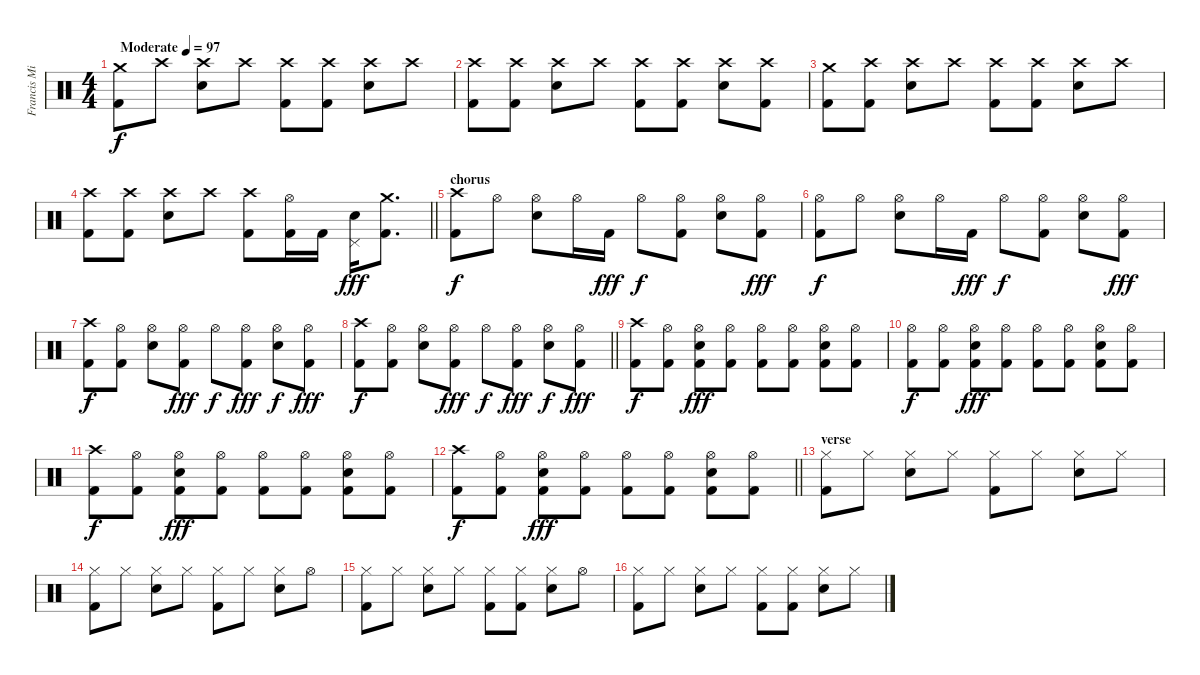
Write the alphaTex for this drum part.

\track ("Francis Mineau" "Francis Mi") {instrument percussion}
\staff {score}
\articulation defaults
\ts (4 4)
\tempo (97 "Moderate")
\clef neutral
\ks c
("Crash medium (hit)" "Kick (hit) 2").8{dy f} "Crash high (hit)".8 ("Crash high (hit)" "Snare (hit) 2").8 "Crash high (hit)".8 ("Crash high (hit)" "Kick (hit) 2").8 ("Crash high (hit)" "Kick (hit) 2").8 ("Crash high (hit)" "Snare (hit) 2").8 "Crash high (hit)".8 |
("Crash high (hit)" "Kick (hit) 2").8 ("Crash high (hit)" "Kick (hit) 2").8 ("Crash high (hit)" "Snare (hit) 2").8 "Crash high (hit)".8 ("Crash high (hit)" "Kick (hit) 2").8 ("Crash high (hit)" "Kick (hit) 2").8 ("Crash high (hit)" "Snare (hit) 2").8 ("Crash high (hit)" "Kick (hit) 2").8 |
("Crash medium (hit)" "Kick (hit) 2").8 ("Crash high (hit)" "Kick (hit) 2").8 ("Crash high (hit)" "Snare (hit) 2").8 "Crash high (hit)".8 ("Crash high (hit)" "Kick (hit) 2").8 ("Crash high (hit)" "Kick (hit) 2").8 ("Crash high (hit)" "Snare (hit) 2").8 "Crash high (hit)".8 |
\barLineRight lightlight
("Crash high (hit)" "Kick (hit) 2").8 ("Crash high (hit)" "Kick (hit) 2").8 ("Crash high (hit)" "Snare (hit) 2").8 "Crash high (hit)".8 ("Crash high (hit)" "Kick (hit) 2").8 ("Hi-Hat (open)" "Kick (hit) 2").16 "Kick (hit) 2".16 ("Snare (hit) 2" "Pedal Hi-Hat (hit)").16{dy fff} ("Crash medium (hit)" "Kick (hit) 2").8{d} |
\section ("" "chorus")
("Crash high (hit)" "Kick (hit) 2").8{dy f} "Hi-Hat (open)".8 ("Hi-Hat (open)" "Snare (hit) 2").8 "Hi-Hat (open)".16 "Kick (hit) 2".16{dy fff} "Hi-Hat (open)".8{dy f} ("Hi-Hat (open)" "Kick (hit) 2").8 ("Hi-Hat (open)" "Snare (hit) 2").8 ("Hi-Hat (open)" "Kick (hit) 2").8{dy fff} |
("Hi-Hat (open)" "Kick (hit) 2").8{dy f} "Hi-Hat (open)".8 ("Hi-Hat (open)" "Snare (hit) 2").8 "Hi-Hat (open)".16 "Kick (hit) 2".16{dy fff} "Hi-Hat (open)".8{dy f} ("Hi-Hat (open)" "Kick (hit) 2").8 ("Hi-Hat (open)" "Snare (hit) 2").8 ("Hi-Hat (open)" "Kick (hit) 2").8{dy fff} |
("Crash high (hit)" "Kick (hit) 2").8{dy f} ("Hi-Hat (open)" "Kick (hit) 2").8 ("Hi-Hat (open)" "Snare (hit) 2").8 ("Hi-Hat (open)" "Kick (hit) 2").8{dy fff} "Hi-Hat (open)".8{dy f} ("Hi-Hat (open)" "Kick (hit) 2").8{dy fff} ("Hi-Hat (open)" "Snare (hit) 2").8{dy f} ("Hi-Hat (open)" "Kick (hit) 2").8{dy fff} |
\barLineRight lightlight
("Crash high (hit)" "Kick (hit) 2").8{dy f} ("Hi-Hat (open)" "Kick (hit) 2").8 ("Hi-Hat (open)" "Snare (hit) 2").8 ("Hi-Hat (open)" "Kick (hit) 2").8{dy fff} "Hi-Hat (open)".8{dy f} ("Hi-Hat (open)" "Kick (hit) 2").8{dy fff} ("Hi-Hat (open)" "Snare (hit) 2").8{dy f} ("Hi-Hat (open)" "Kick (hit) 2").8{dy fff} |
("Crash high (hit)" "Kick (hit) 2").8{dy f} ("Hi-Hat (open)" "Kick (hit) 2").8 ("Hi-Hat (open)" "Snare (hit) 2" "Kick (hit) 2").8{dy fff} ("Hi-Hat (open)" "Kick (hit) 2").8 ("Hi-Hat (open)" "Kick (hit) 2").8 ("Hi-Hat (open)" "Kick (hit) 2").8 ("Hi-Hat (open)" "Snare (hit) 2" "Kick (hit) 2").8 ("Hi-Hat (open)" "Kick (hit) 2").8 |
("Hi-Hat (open)" "Kick (hit) 2").8{dy f} ("Hi-Hat (open)" "Kick (hit) 2").8 ("Hi-Hat (open)" "Snare (hit) 2" "Kick (hit) 2").8{dy fff} ("Hi-Hat (open)" "Kick (hit) 2").8 ("Hi-Hat (open)" "Kick (hit) 2").8 ("Hi-Hat (open)" "Kick (hit) 2").8 ("Hi-Hat (open)" "Snare (hit) 2" "Kick (hit) 2").8 ("Hi-Hat (open)" "Kick (hit) 2").8 |
("Crash high (hit)" "Kick (hit) 2").8{dy f} ("Hi-Hat (open)" "Kick (hit) 2").8 ("Hi-Hat (open)" "Snare (hit) 2" "Kick (hit) 2").8{dy fff} ("Hi-Hat (open)" "Kick (hit) 2").8 ("Hi-Hat (open)" "Kick (hit) 2").8 ("Hi-Hat (open)" "Kick (hit) 2").8 ("Hi-Hat (open)" "Snare (hit) 2" "Kick (hit) 2").8 ("Hi-Hat (open)" "Kick (hit) 2").8 |
\barLineRight lightlight
("Crash high (hit)" "Kick (hit) 2").8{dy f} ("Hi-Hat (open)" "Kick (hit) 2").8 ("Hi-Hat (open)" "Snare (hit) 2" "Kick (hit) 2").8{dy fff} ("Hi-Hat (open)" "Kick (hit) 2").8 ("Hi-Hat (open)" "Kick (hit) 2").8 ("Hi-Hat (open)" "Kick (hit) 2").8 ("Hi-Hat (open)" "Snare (hit) 2" "Kick (hit) 2").8 ("Hi-Hat (open)" "Kick (hit) 2").8 |
\section ("" "verse")
("Hi-Hat (closed)" "Kick (hit) 2").8 "Hi-Hat (closed)".8 ("Hi-Hat (closed)" "Snare (hit) 2").8 "Hi-Hat (closed)".8 ("Hi-Hat (closed)" "Kick (hit) 2").8 "Hi-Hat (closed)".8 ("Hi-Hat (closed)" "Snare (hit) 2").8 "Hi-Hat (closed)".8 |
("Hi-Hat (closed)" "Kick (hit) 2").8 "Hi-Hat (closed)".8 ("Hi-Hat (closed)" "Snare (hit) 2").8 "Hi-Hat (closed)".8 ("Hi-Hat (closed)" "Kick (hit) 2").8 "Hi-Hat (closed)".8 ("Hi-Hat (closed)" "Snare (hit) 2").8 "Hi-Hat (open)".8 |
("Hi-Hat (closed)" "Kick (hit) 2").8 "Hi-Hat (closed)".8 ("Hi-Hat (closed)" "Snare (hit) 2").8 "Hi-Hat (closed)".8 ("Hi-Hat (closed)" "Kick (hit) 2").8 ("Hi-Hat (closed)" "Kick (hit) 2").8 ("Hi-Hat (closed)" "Snare (hit) 2").8 "Hi-Hat (open)".8 |
("Hi-Hat (closed)" "Kick (hit) 2").8 "Hi-Hat (closed)".8 ("Hi-Hat (closed)" "Snare (hit) 2").8 "Hi-Hat (closed)".8 ("Hi-Hat (closed)" "Kick (hit) 2").8 ("Hi-Hat (closed)" "Kick (hit) 2").8 ("Hi-Hat (closed)" "Snare (hit) 2").8 "Hi-Hat (closed)".8
